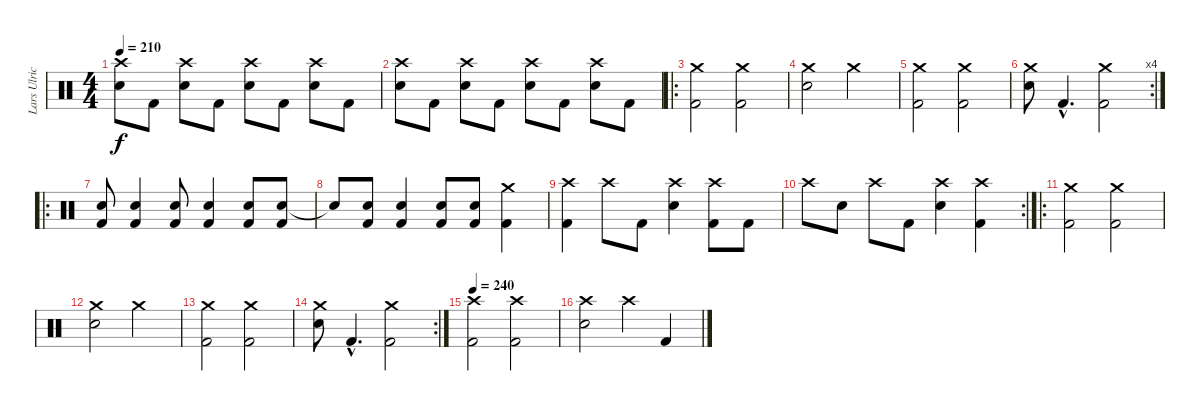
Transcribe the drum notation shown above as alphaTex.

\track ("Lars Ulrich" "Lars Ulric") {instrument percussion}
\staff {score}
\articulation defaults
\ts (4 4)
\tempo 210
\clef neutral
\ks c
("Snare (hit) 2" "Crash high (hit)").8{dy f} "Kick (hit) 2".8 ("Snare (hit) 2" "Crash high (hit)").8 "Kick (hit) 2".8 ("Snare (hit) 2" "Crash high (hit)").8 "Kick (hit) 2".8 ("Snare (hit) 2" "Crash high (hit)").8 "Kick (hit) 2".8 |
("Crash high (hit)" "Snare (hit) 2").8 "Kick (hit) 2".8 ("Crash high (hit)" "Snare (hit) 2").8 "Kick (hit) 2".8 ("Crash high (hit)" "Snare (hit) 2").8 "Kick (hit) 2".8 ("Crash high (hit)" "Snare (hit) 2").8 "Kick (hit) 2".8 |
\ro
("Crash medium (hit)" "Kick (hit) 2").2 ("Crash medium (hit)" "Kick (hit) 2").2 |
("Crash medium (hit)" "Snare (hit) 2").2 "Crash medium (hit)".2 |
("Crash medium (hit)" "Kick (hit) 2").2 ("Crash medium (hit)" "Kick (hit) 2").2 |
\rc 4
("Crash medium (hit)" "Snare (hit) 2").8 "Kick (hit) 2"{hac}.4{d} ("Crash medium (hit)" "Kick (hit) 2").2 |
\ro
("Snare (hit) 2" "Kick (hit) 2").8 ("Snare (hit) 2" "Kick (hit) 2").4 ("Snare (hit) 2" "Kick (hit) 2").8 ("Snare (hit) 2" "Kick (hit) 2").4 ("Snare (hit) 2" "Kick (hit) 2").8 ("Snare (hit) 2" "Kick (hit) 2").8 |
"Snare (hit)"{t}.8 ("Snare (hit) 2" "Kick (hit) 2").8 ("Snare (hit) 2" "Kick (hit) 2").4 ("Snare (hit) 2" "Kick (hit) 2").8 ("Snare (hit) 2" "Kick (hit) 2").8 ("Kick (hit) 2" "Crash medium (hit)").4 |
("Kick (hit) 2" "Crash high (hit)").4 "Crash high (hit)".8 "Kick (hit) 2".8 ("Snare (hit) 2" "Crash high (hit)").4 ("Crash high (hit)" "Kick (hit) 2").8 "Kick (hit) 2".8 |
\rc 2 "Crash high (hit)".8 "Snare (hit) 2".8 "Crash high (hit)".8 "Kick (hit) 2".8
("Crash high (hit)" "Snare (hit) 2").4 ("Crash high (hit)" "Kick (hit) 2").4 |
\ro
("Crash medium (hit)" "Kick (hit) 2").2 ("Crash medium (hit)" "Kick (hit) 2").2 |
("Crash medium (hit)" "Snare (hit) 2").2 "Crash medium (hit)".2 |
("Crash medium (hit)" "Kick (hit) 2").2 ("Crash medium (hit)" "Kick (hit) 2").2 |
\rc 2
("Crash medium (hit)" "Snare (hit) 2").8 "Kick (hit) 2"{hac}.4{d} ("Crash medium (hit)" "Kick (hit) 2").2 |
\tempo 240
("Crash high (hit)" "Kick (hit) 2").2 ("Crash high (hit)" "Kick (hit) 2").2 |
("Crash high (hit)" "Snare (hit) 2").2 "Crash high (hit)".4 "Kick (hit) 2".4
